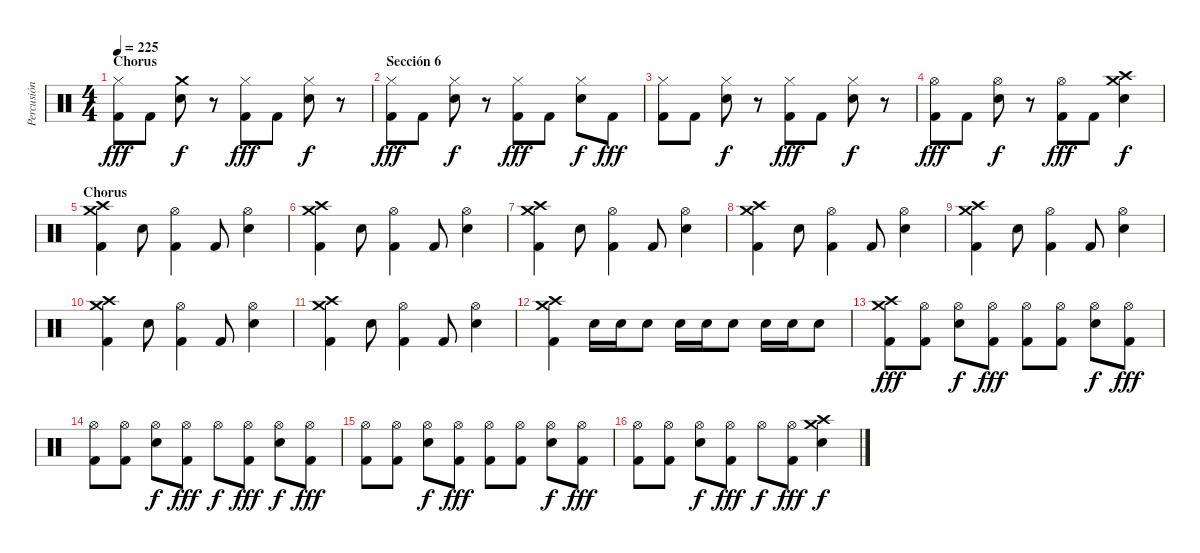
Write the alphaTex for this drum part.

\track ("Percusión" "Percusión") {instrument percussion}
\staff {score}
\articulation defaults
\ts (4 4)
\section ("" "Chorus")
\tempo 225
\clef neutral
\ks c
("Kick (hit) 2" "Hi-Hat (closed)").8{dy fff} "Kick (hit) 2".8 ("Crash medium (hit)" "Electric Snare (hit)").8{dy f} r.8 ("Kick (hit) 2" "Hi-Hat (closed)").8{dy fff} "Kick (hit) 2".8 ("Electric Snare (hit)" "Hi-Hat (closed)").8{dy f} r.8 |
\section ("" "Sección 6")
("Kick (hit) 2" "Hi-Hat (closed)").8{dy fff} "Kick (hit) 2".8 ("Electric Snare (hit)" "Hi-Hat (closed)").8{dy f} r.8 ("Kick (hit) 2" "Hi-Hat (closed)").8{dy fff} "Kick (hit) 2".8 ("Electric Snare (hit)" "Hi-Hat (closed)").8{dy f} "Kick (hit) 2".8{dy fff} |
("Kick (hit) 2" "Hi-Hat (closed)").8 "Kick (hit) 2".8 ("Electric Snare (hit)" "Hi-Hat (closed)").8{dy f} r.8 ("Kick (hit) 2" "Hi-Hat (closed)").8{dy fff} "Kick (hit) 2".8 ("Electric Snare (hit)" "Hi-Hat (closed)").8{dy f} r.8 |
("Kick (hit) 2" "Hi-Hat (open)").8{dy fff} "Kick (hit) 2".8 ("Electric Snare (hit)" "Hi-Hat (open)").8{dy f} r.8 ("Kick (hit) 2" "Hi-Hat (open)").8{dy fff} "Kick (hit) 2".8 ("Electric Snare (hit)" "Crash medium (hit)" "Crash high (hit)").4{dy f} |
\section ("" "Chorus")
("Kick (hit) 2" "Crash medium (hit)" "Crash high (hit)").4 "Electric Snare (hit)".8 ("Kick (hit) 2" "Hi-Hat (open)").4 "Kick (hit) 2".8 ("Electric Snare (hit)" "Hi-Hat (open)").4 |
("Kick (hit) 2" "Crash medium (hit)" "Crash high (hit)").4 "Electric Snare (hit)".8 ("Kick (hit) 2" "Hi-Hat (open)").4 "Kick (hit) 2".8 ("Electric Snare (hit)" "Hi-Hat (open)").4 |
("Kick (hit) 2" "Crash medium (hit)" "Crash high (hit)").4 "Electric Snare (hit)".8 ("Kick (hit) 2" "Hi-Hat (open)").4 "Kick (hit) 2".8 ("Electric Snare (hit)" "Hi-Hat (open)").4 |
("Kick (hit) 2" "Crash medium (hit)" "Crash high (hit)").4 "Electric Snare (hit)".8 ("Kick (hit) 2" "Hi-Hat (open)").4 "Kick (hit) 2".8 ("Electric Snare (hit)" "Hi-Hat (open)").4 |
("Kick (hit) 2" "Crash medium (hit)" "Crash high (hit)").4 "Electric Snare (hit)".8 ("Kick (hit) 2" "Hi-Hat (open)").4 "Kick (hit) 2".8 ("Electric Snare (hit)" "Hi-Hat (open)").4 |
("Kick (hit) 2" "Crash medium (hit)" "Crash high (hit)").4 "Electric Snare (hit)".8 ("Kick (hit) 2" "Hi-Hat (open)").4 "Kick (hit) 2".8 ("Electric Snare (hit)" "Hi-Hat (open)").4 |
("Kick (hit) 2" "Crash medium (hit)" "Crash high (hit)").4 "Electric Snare (hit)".8 ("Kick (hit) 2" "Hi-Hat (open)").4 "Kick (hit) 2".8 ("Electric Snare (hit)" "Hi-Hat (open)").4 |
("Kick (hit) 2" "Crash medium (hit)" "Crash high (hit)").4 "Electric Snare (hit)".16 "Electric Snare (hit)".16 "Electric Snare (hit)".8 "Electric Snare (hit)".16 "Electric Snare (hit)".16 "Electric Snare (hit)".8 "Electric Snare (hit)".16 "Electric Snare (hit)".16 "Electric Snare (hit)".8 |
("Kick (hit) 2" "Crash medium (hit)" "Crash high (hit)").8{dy fff} ("Kick (hit) 2" "Hi-Hat (open)").8 ("Electric Snare (hit)" "Hi-Hat (open)").8{dy f} ("Kick (hit) 2" "Hi-Hat (open)").8{dy fff} ("Kick (hit) 2" "Hi-Hat (open)").8 ("Kick (hit) 2" "Hi-Hat (open)").8 ("Electric Snare (hit)" "Hi-Hat (open)").8{dy f} ("Kick (hit) 2" "Hi-Hat (open)").8{dy fff} |
("Kick (hit) 2" "Hi-Hat (open)").8 ("Kick (hit) 2" "Hi-Hat (open)").8 ("Electric Snare (hit)" "Hi-Hat (open)").8{dy f} ("Kick (hit) 2" "Hi-Hat (open)").8{dy fff} "Hi-Hat (open)".8{dy f} ("Kick (hit) 2" "Hi-Hat (open)").8{dy fff} ("Electric Snare (hit)" "Hi-Hat (open)").8{dy f} ("Kick (hit) 2" "Hi-Hat (open)").8{dy fff} |
("Kick (hit) 2" "Hi-Hat (open)").8 ("Kick (hit) 2" "Hi-Hat (open)").8 ("Electric Snare (hit)" "Hi-Hat (open)").8{dy f} ("Kick (hit) 2" "Hi-Hat (open)").8{dy fff} ("Kick (hit) 2" "Hi-Hat (open)").8 ("Kick (hit) 2" "Hi-Hat (open)").8 ("Electric Snare (hit)" "Hi-Hat (open)").8{dy f} ("Kick (hit) 2" "Hi-Hat (open)").8{dy fff} |
("Kick (hit) 2" "Hi-Hat (open)").8 ("Kick (hit) 2" "Hi-Hat (open)").8 ("Electric Snare (hit)" "Hi-Hat (open)").8{dy f} ("Kick (hit) 2" "Hi-Hat (open)").8{dy fff} "Hi-Hat (open)".8{dy f} ("Kick (hit) 2" "Hi-Hat (open)").8{dy fff} ("Electric Snare (hit)" "Crash medium (hit)" "Crash high (hit)").4{dy f}
